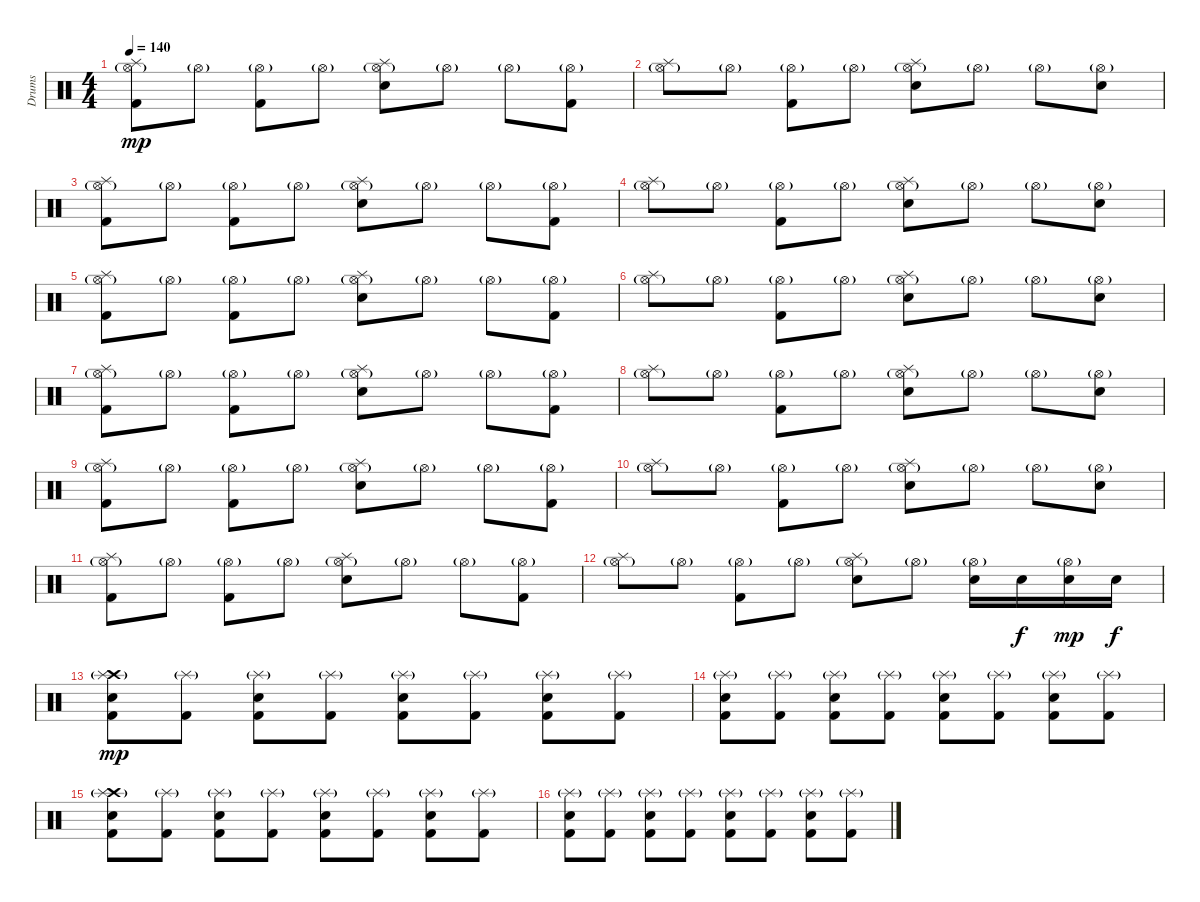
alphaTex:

\track ("Drums" "Drums") {instrument percussion}
\staff {score}
\articulation defaults
\ts (4 4)
\tempo 140
\clef neutral
\ks c
("Hi-Hat (open)"{g} "Splash (hit)" "Kick (hit) 2").8{dy mp} "Hi-Hat (open)"{g}.8 ("Hi-Hat (open)"{g} "Kick (hit) 2").8 "Hi-Hat (open)"{g}.8 ("Hi-Hat (open)"{g} "Splash (hit)" "Electric Snare (hit)").8 "Hi-Hat (open)"{g}.8 "Hi-Hat (open)"{g}.8 ("Hi-Hat (open)"{g} "Kick (hit) 2").8 |
("Hi-Hat (open)"{g} "Splash (hit)").8 "Hi-Hat (open)"{g}.8 ("Hi-Hat (open)"{g} "Kick (hit) 2").8 "Hi-Hat (open)"{g}.8 ("Hi-Hat (open)"{g} "Splash (hit)" "Electric Snare (hit)").8 "Hi-Hat (open)"{g}.8 "Hi-Hat (open)"{g}.8 ("Hi-Hat (open)"{g} "Electric Snare (hit)").8 |
("Hi-Hat (open)"{g} "Splash (hit)" "Kick (hit) 2").8 "Hi-Hat (open)"{g}.8 ("Hi-Hat (open)"{g} "Kick (hit) 2").8 "Hi-Hat (open)"{g}.8 ("Hi-Hat (open)"{g} "Splash (hit)" "Electric Snare (hit)").8 "Hi-Hat (open)"{g}.8 "Hi-Hat (open)"{g}.8 ("Hi-Hat (open)"{g} "Kick (hit) 2").8 |
("Hi-Hat (open)"{g} "Splash (hit)").8 "Hi-Hat (open)"{g}.8 ("Hi-Hat (open)"{g} "Kick (hit) 2").8 "Hi-Hat (open)"{g}.8 ("Hi-Hat (open)"{g} "Splash (hit)" "Electric Snare (hit)").8 "Hi-Hat (open)"{g}.8 "Hi-Hat (open)"{g}.8 ("Hi-Hat (open)"{g} "Electric Snare (hit)").8 |
("Hi-Hat (open)"{g} "Splash (hit)" "Kick (hit) 2").8 "Hi-Hat (open)"{g}.8 ("Hi-Hat (open)"{g} "Kick (hit) 2").8 "Hi-Hat (open)"{g}.8 ("Hi-Hat (open)"{g} "Splash (hit)" "Electric Snare (hit)").8 "Hi-Hat (open)"{g}.8 "Hi-Hat (open)"{g}.8 ("Hi-Hat (open)"{g} "Kick (hit) 2").8 |
("Hi-Hat (open)"{g} "Splash (hit)").8 "Hi-Hat (open)"{g}.8 ("Hi-Hat (open)"{g} "Kick (hit) 2").8 "Hi-Hat (open)"{g}.8 ("Hi-Hat (open)"{g} "Splash (hit)" "Electric Snare (hit)").8 "Hi-Hat (open)"{g}.8 "Hi-Hat (open)"{g}.8 ("Hi-Hat (open)"{g} "Electric Snare (hit)").8 |
("Hi-Hat (open)"{g} "Splash (hit)" "Kick (hit) 2").8 "Hi-Hat (open)"{g}.8 ("Hi-Hat (open)"{g} "Kick (hit) 2").8 "Hi-Hat (open)"{g}.8 ("Hi-Hat (open)"{g} "Splash (hit)" "Electric Snare (hit)").8 "Hi-Hat (open)"{g}.8 "Hi-Hat (open)"{g}.8 ("Hi-Hat (open)"{g} "Kick (hit) 2").8 |
("Hi-Hat (open)"{g} "Splash (hit)").8 "Hi-Hat (open)"{g}.8 ("Hi-Hat (open)"{g} "Kick (hit) 2").8 "Hi-Hat (open)"{g}.8 ("Hi-Hat (open)"{g} "Splash (hit)" "Electric Snare (hit)").8 "Hi-Hat (open)"{g}.8 "Hi-Hat (open)"{g}.8 ("Hi-Hat (open)"{g} "Electric Snare (hit)").8 |
("Hi-Hat (open)"{g} "Splash (hit)" "Kick (hit) 2").8 "Hi-Hat (open)"{g}.8 ("Hi-Hat (open)"{g} "Kick (hit) 2").8 "Hi-Hat (open)"{g}.8 ("Hi-Hat (open)"{g} "Splash (hit)" "Electric Snare (hit)").8 "Hi-Hat (open)"{g}.8 "Hi-Hat (open)"{g}.8 ("Hi-Hat (open)"{g} "Kick (hit) 2").8 |
("Hi-Hat (open)"{g} "Splash (hit)").8 "Hi-Hat (open)"{g}.8 ("Hi-Hat (open)"{g} "Kick (hit) 2").8 "Hi-Hat (open)"{g}.8 ("Hi-Hat (open)"{g} "Splash (hit)" "Electric Snare (hit)").8 "Hi-Hat (open)"{g}.8 "Hi-Hat (open)"{g}.8 ("Hi-Hat (open)"{g} "Electric Snare (hit)").8 |
("Hi-Hat (open)"{g} "Splash (hit)" "Kick (hit) 2").8 "Hi-Hat (open)"{g}.8 ("Hi-Hat (open)"{g} "Kick (hit) 2").8 "Hi-Hat (open)"{g}.8 ("Hi-Hat (open)"{g} "Splash (hit)" "Electric Snare (hit)").8 "Hi-Hat (open)"{g}.8 "Hi-Hat (open)"{g}.8 ("Hi-Hat (open)"{g} "Kick (hit) 2").8 |
("Hi-Hat (open)"{g} "Splash (hit)").8 "Hi-Hat (open)"{g}.8 ("Hi-Hat (open)"{g} "Kick (hit) 2").8 "Hi-Hat (open)"{g}.8 ("Hi-Hat (open)"{g} "Splash (hit)" "Electric Snare (hit)").8 "Hi-Hat (open)"{g}.8 ("Hi-Hat (open)"{g} "Electric Snare (hit)").16 "Electric Snare (hit)".16{dy f} ("Hi-Hat (open)"{g} "Electric Snare (hit)").16{dy mp} "Electric Snare (hit)".16{dy f} |
("Crash high (hit)" "Splash (hit)"{g} "Electric Snare (hit)" "Kick (hit) 2").8{dy mp} ("Splash (hit)"{g} "Kick (hit) 2").8 ("Splash (hit)"{g} "Electric Snare (hit)" "Kick (hit) 2").8 ("Splash (hit)"{g} "Kick (hit) 2").8 ("Splash (hit)"{g} "Electric Snare (hit)" "Kick (hit) 2").8 ("Splash (hit)"{g} "Kick (hit) 2").8 ("Splash (hit)"{g} "Electric Snare (hit)" "Kick (hit) 2").8 ("Splash (hit)"{g} "Kick (hit) 2").8 |
("Splash (hit)"{g} "Electric Snare (hit)" "Kick (hit) 2").8 ("Splash (hit)"{g} "Kick (hit) 2").8 ("Splash (hit)"{g} "Electric Snare (hit)" "Kick (hit) 2").8 ("Splash (hit)"{g} "Kick (hit) 2").8 ("Splash (hit)"{g} "Electric Snare (hit)" "Kick (hit) 2").8 ("Splash (hit)"{g} "Kick (hit) 2").8 ("Splash (hit)"{g} "Electric Snare (hit)" "Kick (hit) 2").8 ("Splash (hit)"{g} "Kick (hit) 2").8 |
("Crash high (hit)" "Splash (hit)"{g} "Electric Snare (hit)" "Kick (hit) 2").8 ("Splash (hit)"{g} "Kick (hit) 2").8 ("Splash (hit)"{g} "Electric Snare (hit)" "Kick (hit) 2").8 ("Splash (hit)"{g} "Kick (hit) 2").8 ("Splash (hit)"{g} "Electric Snare (hit)" "Kick (hit) 2").8 ("Splash (hit)"{g} "Kick (hit) 2").8 ("Splash (hit)"{g} "Electric Snare (hit)" "Kick (hit) 2").8 ("Splash (hit)"{g} "Kick (hit) 2").8 |
("Splash (hit)"{g} "Electric Snare (hit)" "Kick (hit) 2").8 ("Splash (hit)"{g} "Kick (hit) 2").8 ("Splash (hit)"{g} "Electric Snare (hit)" "Kick (hit) 2").8 ("Splash (hit)"{g} "Kick (hit) 2").8 ("Splash (hit)"{g} "Electric Snare (hit)" "Kick (hit) 2").8 ("Splash (hit)"{g} "Kick (hit) 2").8 ("Splash (hit)"{g} "Electric Snare (hit)" "Kick (hit) 2").8 ("Splash (hit)"{g} "Kick (hit) 2").8
